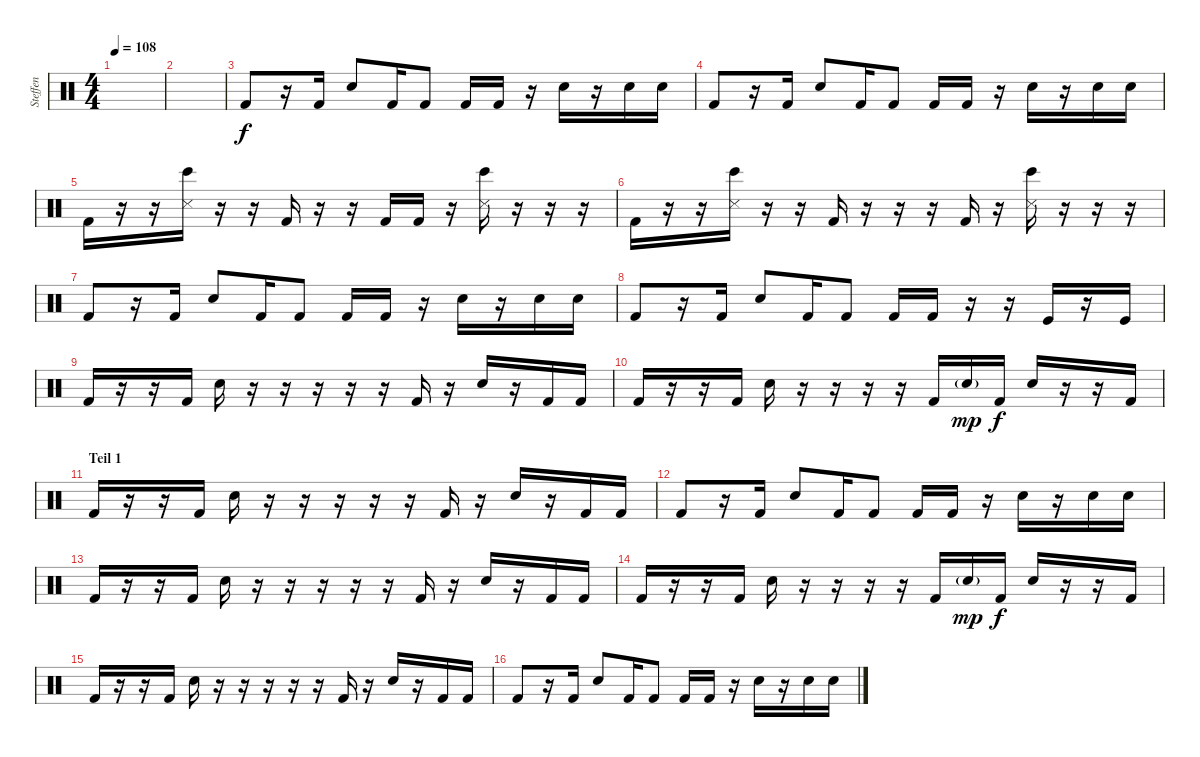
\track ("Steffen" "Steffen") {instrument percussion}
\staff {score}
\articulation defaults
\ts (4 4)
\tempo 108
\clef neutral
\ks c
|
|
"Kick (hit) 2".8 r.16 "Kick (hit) 2".16 "Snare (hit) 2".8 "Kick (hit) 2".16 "Kick (hit) 2".8 "Kick (hit) 2".16 "Kick (hit) 2".16 r.16 "Snare (hit) 2".16 r.16 "Snare (hit) 2".16 "Snare (hit) 2".16 |
"Kick (hit) 2".8 r.16 "Kick (hit) 2".16 "Snare (hit) 2".8 "Kick (hit) 2".16 "Kick (hit) 2".8 "Kick (hit) 2".16 "Kick (hit) 2".16 r.16 "Snare (hit) 2".16 r.16 "Snare (hit) 2".16 "Snare (hit) 2".16 |
"Kick (hit) 2".16 r.16 r.16 ("Bongo High (hit)" "Snare (side stick) 3").16 r.16 r.16 "Kick (hit) 2".16 r.16 r.16 "Kick (hit) 2".16 "Kick (hit) 2".16 r.16 ("Bongo High (hit)" "Snare (side stick) 3").16 r.16 r.16 r.16 |
"Kick (hit) 2".16 r.16 r.16 ("Bongo High (hit)" "Snare (side stick) 3").16 r.16 r.16 "Kick (hit) 2".16 r.16 r.16 r.16 "Kick (hit) 2".16 r.16 ("Bongo High (hit)" "Snare (side stick) 3").16 r.16 r.16 r.16 |
"Kick (hit) 2".8 r.16 "Kick (hit) 2".16 "Snare (hit) 2".8 "Kick (hit) 2".16 "Kick (hit) 2".8 "Kick (hit) 2".16 "Kick (hit) 2".16 r.16 "Snare (hit) 2".16 r.16 "Snare (hit) 2".16 "Snare (hit) 2".16 |
"Kick (hit) 2".8 r.16 "Kick (hit) 2".16 "Snare (hit) 2".8 "Kick (hit) 2".16 "Kick (hit) 2".8 "Kick (hit) 2".16 "Kick (hit) 2".16 r.16 r.16 "Kick (hit)".16 r.16 "Kick (hit)".16 |
"Kick (hit) 2".16 r.16 r.16 "Kick (hit) 2".16 "Snare (hit) 2".16 r.16 r.16 r.16 r.16 r.16 "Kick (hit) 2".16 r.16 "Snare (hit) 2".16 r.16 "Kick (hit) 2".16 "Kick (hit) 2".16 |
"Kick (hit) 2".16 r.16 r.16 "Kick (hit) 2".16 "Snare (hit) 2".16 r.16 r.16 r.16 r.16 "Kick (hit) 2".16 "Snare (hit) 2"{g}.16{dy mp} "Kick (hit) 2".16{dy f} "Snare (hit) 2".16 r.16 r.16 "Kick (hit) 2".16 |
\section ("" "Teil 1")
"Kick (hit) 2".16 r.16 r.16 "Kick (hit) 2".16 "Snare (hit) 2".16 r.16 r.16 r.16 r.16 r.16 "Kick (hit) 2".16 r.16 "Snare (hit) 2".16 r.16 "Kick (hit) 2".16 "Kick (hit) 2".16 |
"Kick (hit) 2".8 r.16 "Kick (hit) 2".16 "Snare (hit) 2".8 "Kick (hit) 2".16 "Kick (hit) 2".8 "Kick (hit) 2".16 "Kick (hit) 2".16 r.16 "Snare (hit) 2".16 r.16 "Snare (hit) 2".16 "Snare (hit) 2".16 |
"Kick (hit) 2".16 r.16 r.16 "Kick (hit) 2".16 "Snare (hit) 2".16 r.16 r.16 r.16 r.16 r.16 "Kick (hit) 2".16 r.16 "Snare (hit) 2".16 r.16 "Kick (hit) 2".16 "Kick (hit) 2".16 |
"Kick (hit) 2".16 r.16 r.16 "Kick (hit) 2".16 "Snare (hit) 2".16 r.16 r.16 r.16 r.16 "Kick (hit) 2".16 "Snare (hit) 2"{g}.16{dy mp} "Kick (hit) 2".16{dy f} "Snare (hit) 2".16 r.16 r.16 "Kick (hit) 2".16 |
"Kick (hit) 2".16 r.16 r.16 "Kick (hit) 2".16 "Snare (hit) 2".16 r.16 r.16 r.16 r.16 r.16 "Kick (hit) 2".16 r.16 "Snare (hit) 2".16 r.16 "Kick (hit) 2".16 "Kick (hit) 2".16 |
"Kick (hit) 2".8 r.16 "Kick (hit) 2".16 "Snare (hit) 2".8 "Kick (hit) 2".16 "Kick (hit) 2".8 "Kick (hit) 2".16 "Kick (hit) 2".16 r.16 "Snare (hit) 2".16 r.16 "Snare (hit) 2".16 "Snare (hit) 2".16
